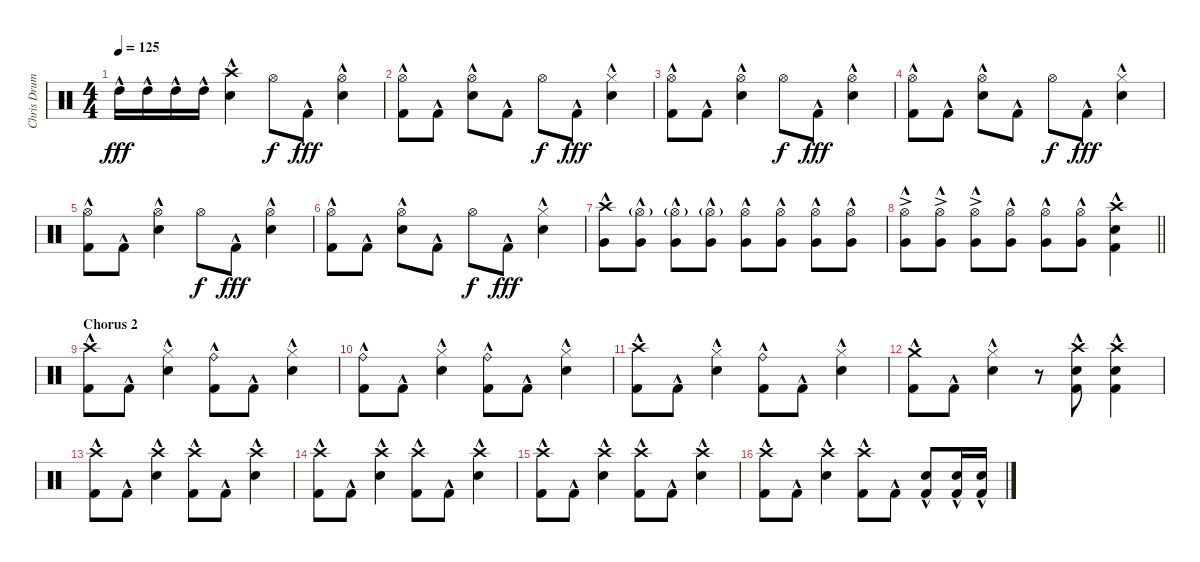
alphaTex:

\track ("Chris Drums" "Chris Drum") {instrument percussion}
\staff {score}
\articulation defaults
\ts (4 4)
\tempo 125
\clef neutral
\ks c "High Tom (hit)"{hac}.16{dy fff} "High Tom (hit)"{hac}.16 "High Tom (hit)"{hac}.16 "High Tom (hit)"{hac}.16
("Crash high (hit)"{hac} "Snare (hit) 2"{hac}).4 "Hi-Hat (open)".8{dy f} "Kick (hit) 2"{hac}.8{dy fff} ("Hi-Hat (open)" "Snare (hit) 2"{hac}).4 |
("Hi-Hat (open)" "Kick (hit) 2"{hac}).8 "Kick (hit) 2"{hac}.8 ("Hi-Hat (open)" "Snare (hit) 2"{hac}).8 "Kick (hit) 2"{hac}.8 "Hi-Hat (open)".8{dy f} "Kick (hit) 2"{hac}.8{dy fff} ("Hi-Hat (closed)" "Snare (hit) 2"{hac}).4 |
("Hi-Hat (open)" "Kick (hit) 2"{hac}).8 "Kick (hit) 2"{hac}.8 ("Hi-Hat (open)" "Snare (hit) 2"{hac}).4 "Hi-Hat (open)".8{dy f} "Kick (hit) 2"{hac}.8{dy fff} ("Hi-Hat (open)" "Snare (hit) 2"{hac}).4 |
("Hi-Hat (open)" "Kick (hit) 2"{hac}).8 "Kick (hit) 2"{hac}.8 ("Hi-Hat (open)" "Snare (hit) 2"{hac}).8 "Kick (hit) 2"{hac}.8 "Hi-Hat (open)".8{dy f} "Kick (hit) 2"{hac}.8{dy fff} ("Hi-Hat (closed)" "Snare (hit) 2"{hac}).4 |
("Hi-Hat (open)" "Kick (hit) 2"{hac}).8 "Kick (hit) 2"{hac}.8 ("Hi-Hat (open)" "Snare (hit) 2"{hac}).4 "Hi-Hat (open)".8{dy f} "Kick (hit) 2"{hac}.8{dy fff} ("Hi-Hat (open)" "Snare (hit) 2"{hac}).4 |
("Hi-Hat (open)" "Kick (hit) 2"{hac}).8 "Kick (hit) 2"{hac}.8 ("Hi-Hat (open)" "Snare (hit) 2"{hac}).8 "Kick (hit) 2"{hac}.8 "Hi-Hat (open)".8{dy f} "Kick (hit) 2"{hac}.8{dy fff} ("Hi-Hat (closed)" "Snare (hit) 2"{hac}).4 |
("Crash high (hit)"{hac} "Very Low Tom (hit)"{hac}).8 ("Hi-Hat (open)"{g} "Very Low Tom (hit)"{hac}).8 ("Hi-Hat (open)"{g} "Very Low Tom (hit)"{hac}).8 ("Hi-Hat (open)"{g} "Very Low Tom (hit)"{hac}).8 ("Hi-Hat (open)" "Very Low Tom (hit)"{hac}).8 ("Hi-Hat (open)" "Very Low Tom (hit)"{hac}).8 ("Hi-Hat (open)" "Very Low Tom (hit)"{hac}).8 ("Hi-Hat (open)" "Very Low Tom (hit)"{hac}).8 |
\barLineRight lightlight
("Hi-Hat (open)"{ac} "Very Low Tom (hit)"{hac}).8 ("Hi-Hat (open)"{ac} "Very Low Tom (hit)"{hac}).8 ("Hi-Hat (open)"{ac} "Very Low Tom (hit)"{hac}).8 ("Hi-Hat (open)"{hac} "Very Low Tom (hit)"{hac}).8 ("Hi-Hat (open)"{hac} "Very Low Tom (hit)"{hac}).8 ("Hi-Hat (open)"{hac} "Very Low Tom (hit)"{hac}).8 ("Crash high (hit)" "Snare (hit) 2"{hac} "Kick (hit) 2"{hac}).4 |
\section ("" "Chorus 2")
("Crash high (hit)"{hac} "Kick (hit) 2"{hac}).8 "Kick (hit) 2"{hac}.8 ("Hi-Hat (closed)"{hac} "Snare (hit) 2"{hac}).4 ("Ride (bell)"{hac} "Kick (hit) 2"{hac}).8 "Kick (hit) 2"{hac}.8 ("Hi-Hat (closed)"{hac} "Snare (hit) 2"{hac}).4 |
("Ride (bell)"{hac} "Kick (hit) 2"{hac}).8 "Kick (hit) 2"{hac}.8 ("Hi-Hat (closed)"{hac} "Snare (hit) 2"{hac}).4 ("Ride (bell)"{hac} "Kick (hit) 2"{hac}).8 "Kick (hit) 2"{hac}.8 ("Hi-Hat (closed)"{hac} "Snare (hit) 2"{hac}).4 |
("Crash high (hit)"{hac} "Kick (hit) 2"{hac}).8 "Kick (hit) 2"{hac}.8 ("Hi-Hat (closed)"{hac} "Snare (hit) 2"{hac}).4 ("Ride (bell)"{hac} "Kick (hit) 2"{hac}).8 "Kick (hit) 2"{hac}.8 ("Hi-Hat (closed)"{hac} "Snare (hit) 2"{hac}).4 |
("Crash medium (hit)"{hac} "Kick (hit) 2"{hac}).8 "Kick (hit) 2"{hac}.8 ("Hi-Hat (closed)"{hac} "Snare (hit) 2"{hac}).4 r.8 ("Crash high (hit)" "Snare (hit) 2"{hac} "Kick (hit) 2"{hac}).8 ("Crash high (hit)" "Snare (hit) 2"{hac} "Kick (hit) 2"{hac}).4 |
("Crash high (hit)"{hac} "Kick (hit) 2"{hac}).8 "Kick (hit) 2"{hac}.8 ("Crash high (hit)"{hac} "Snare (hit) 2"{hac}).4 ("Crash high (hit)"{hac} "Kick (hit) 2"{hac}).8 "Kick (hit) 2"{hac}.8 ("Crash high (hit)"{hac} "Snare (hit) 2"{hac}).4 |
("Crash high (hit)"{hac} "Kick (hit) 2"{hac}).8 "Kick (hit) 2"{hac}.8 ("Crash high (hit)"{hac} "Snare (hit) 2"{hac}).4 ("Crash high (hit)"{hac} "Kick (hit) 2"{hac}).8 "Kick (hit) 2"{hac}.8 ("Crash high (hit)"{hac} "Snare (hit) 2"{hac}).4 |
("Crash high (hit)"{hac} "Kick (hit) 2"{hac}).8 "Kick (hit) 2"{hac}.8 ("Crash high (hit)"{hac} "Snare (hit) 2"{hac}).4 ("Crash high (hit)"{hac} "Kick (hit) 2"{hac}).8 "Kick (hit) 2"{hac}.8 ("Crash high (hit)"{hac} "Snare (hit) 2"{hac}).4 |
("Crash high (hit)"{hac} "Kick (hit) 2"{hac}).8 "Kick (hit) 2"{hac}.8 ("Crash high (hit)"{hac} "Snare (hit) 2"{hac}).4 ("Crash high (hit)"{hac} "Kick (hit) 2"{hac}).8 "Kick (hit) 2"{hac}.8 ("Snare (hit) 2"{hac} "Kick (hit) 2"{hac}).8 ("Snare (hit) 2"{hac} "Kick (hit) 2"{hac}).16 ("Snare (hit) 2"{hac} "Kick (hit) 2"{hac}).16
